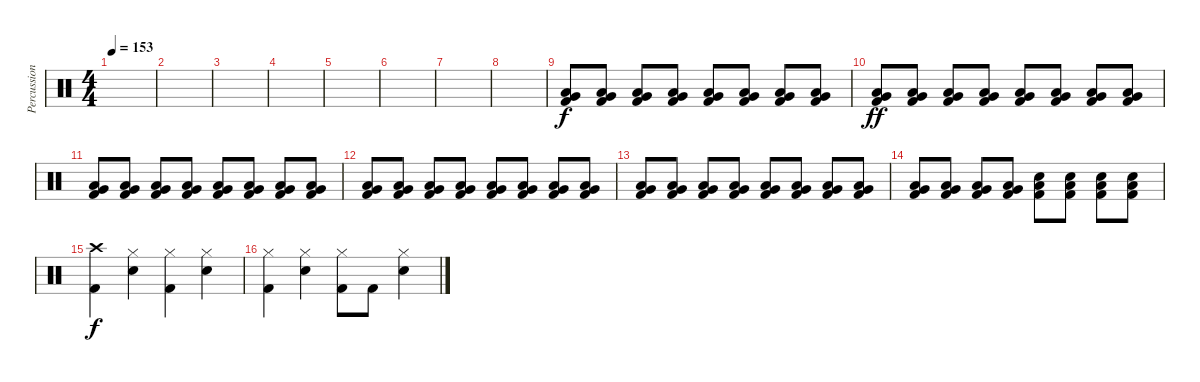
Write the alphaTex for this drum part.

\track ("Percussion" "Percussion") {instrument percussion}
\staff {score}
\articulation defaults
\ts (4 4)
\tempo 153
\clef neutral
\ks c
|
|
|
|
|
|
|
|
("Very Low Tom (hit)" "Low Floor Tom (hit)" "Kick (hit) 2").8{volume 2} ("Very Low Tom (hit)" "Low Floor Tom (hit)" "Kick (hit) 2").8{volume 16} ("Very Low Tom (hit)" "Low Floor Tom (hit)" "Kick (hit) 2").8 ("Very Low Tom (hit)" "Low Floor Tom (hit)" "Kick (hit) 2").8 ("Very Low Tom (hit)" "Low Floor Tom (hit)" "Kick (hit) 2").8 ("Very Low Tom (hit)" "Low Floor Tom (hit)" "Kick (hit) 2").8 ("Very Low Tom (hit)" "Low Floor Tom (hit)" "Kick (hit) 2").8 ("Very Low Tom (hit)" "Low Floor Tom (hit)" "Kick (hit) 2").8 |
("Very Low Tom (hit)" "Low Floor Tom (hit)" "Kick (hit) 2").8{dy ff} ("Very Low Tom (hit)" "Low Floor Tom (hit)" "Kick (hit) 2").8 ("Very Low Tom (hit)" "Low Floor Tom (hit)" "Kick (hit) 2").8 ("Very Low Tom (hit)" "Low Floor Tom (hit)" "Kick (hit) 2").8 ("Very Low Tom (hit)" "Low Floor Tom (hit)" "Kick (hit) 2").8 ("Very Low Tom (hit)" "Low Floor Tom (hit)" "Kick (hit) 2").8 ("Very Low Tom (hit)" "Low Floor Tom (hit)" "Kick (hit) 2").8 ("Very Low Tom (hit)" "Low Floor Tom (hit)" "Kick (hit) 2").8 |
("Very Low Tom (hit)" "Low Floor Tom (hit)" "Kick (hit) 2").8 ("Very Low Tom (hit)" "Low Floor Tom (hit)" "Kick (hit) 2").8 ("Very Low Tom (hit)" "Low Floor Tom (hit)" "Kick (hit) 2").8 ("Very Low Tom (hit)" "Low Floor Tom (hit)" "Kick (hit) 2").8 ("Very Low Tom (hit)" "Low Floor Tom (hit)" "Kick (hit) 2").8 ("Very Low Tom (hit)" "Low Floor Tom (hit)" "Kick (hit) 2").8 ("Very Low Tom (hit)" "Low Floor Tom (hit)" "Kick (hit) 2").8 ("Very Low Tom (hit)" "Low Floor Tom (hit)" "Kick (hit) 2").8 |
("Very Low Tom (hit)" "Low Floor Tom (hit)" "Kick (hit) 2").8 ("Very Low Tom (hit)" "Low Floor Tom (hit)" "Kick (hit) 2").8 ("Very Low Tom (hit)" "Low Floor Tom (hit)" "Kick (hit) 2").8 ("Very Low Tom (hit)" "Low Floor Tom (hit)" "Kick (hit) 2").8 ("Very Low Tom (hit)" "Low Floor Tom (hit)" "Kick (hit) 2").8 ("Very Low Tom (hit)" "Low Floor Tom (hit)" "Kick (hit) 2").8 ("Very Low Tom (hit)" "Low Floor Tom (hit)" "Kick (hit) 2").8 ("Very Low Tom (hit)" "Low Floor Tom (hit)" "Kick (hit) 2").8 |
("Very Low Tom (hit)" "Low Floor Tom (hit)" "Kick (hit) 2").8 ("Very Low Tom (hit)" "Low Floor Tom (hit)" "Kick (hit) 2").8 ("Very Low Tom (hit)" "Low Floor Tom (hit)" "Kick (hit) 2").8 ("Very Low Tom (hit)" "Low Floor Tom (hit)" "Kick (hit) 2").8 ("Very Low Tom (hit)" "Low Floor Tom (hit)" "Kick (hit) 2").8 ("Very Low Tom (hit)" "Low Floor Tom (hit)" "Kick (hit) 2").8 ("Very Low Tom (hit)" "Low Floor Tom (hit)" "Kick (hit) 2").8 ("Very Low Tom (hit)" "Low Floor Tom (hit)" "Kick (hit) 2").8 |
("Very Low Tom (hit)" "Low Floor Tom (hit)" "Kick (hit) 2").8 ("Very Low Tom (hit)" "Low Floor Tom (hit)" "Kick (hit) 2").8 ("Very Low Tom (hit)" "Low Floor Tom (hit)" "Kick (hit) 2").8 ("Very Low Tom (hit)" "Low Floor Tom (hit)" "Kick (hit) 2").8 ("Electric Snare (hit)" "Low Floor Tom (hit)" "Kick (hit) 2").8 ("Electric Snare (hit)" "Low Floor Tom (hit)" "Kick (hit) 2").8 ("Electric Snare (hit)" "Low Floor Tom (hit)" "Kick (hit) 2").8 ("Electric Snare (hit)" "Low Floor Tom (hit)" "Kick (hit) 2").8 |
("Crash high (hit)" "Kick (hit) 2").4{dy f} ("Hi-Hat (closed)" "Electric Snare (hit)").4 ("Hi-Hat (closed)" "Kick (hit) 2").4 ("Hi-Hat (closed)" "Electric Snare (hit)").4 |
("Hi-Hat (closed)" "Kick (hit) 2").4 ("Hi-Hat (closed)" "Electric Snare (hit)").4 ("Hi-Hat (closed)" "Kick (hit) 2").8 "Kick (hit) 2".8 ("Hi-Hat (closed)" "Electric Snare (hit)").4
